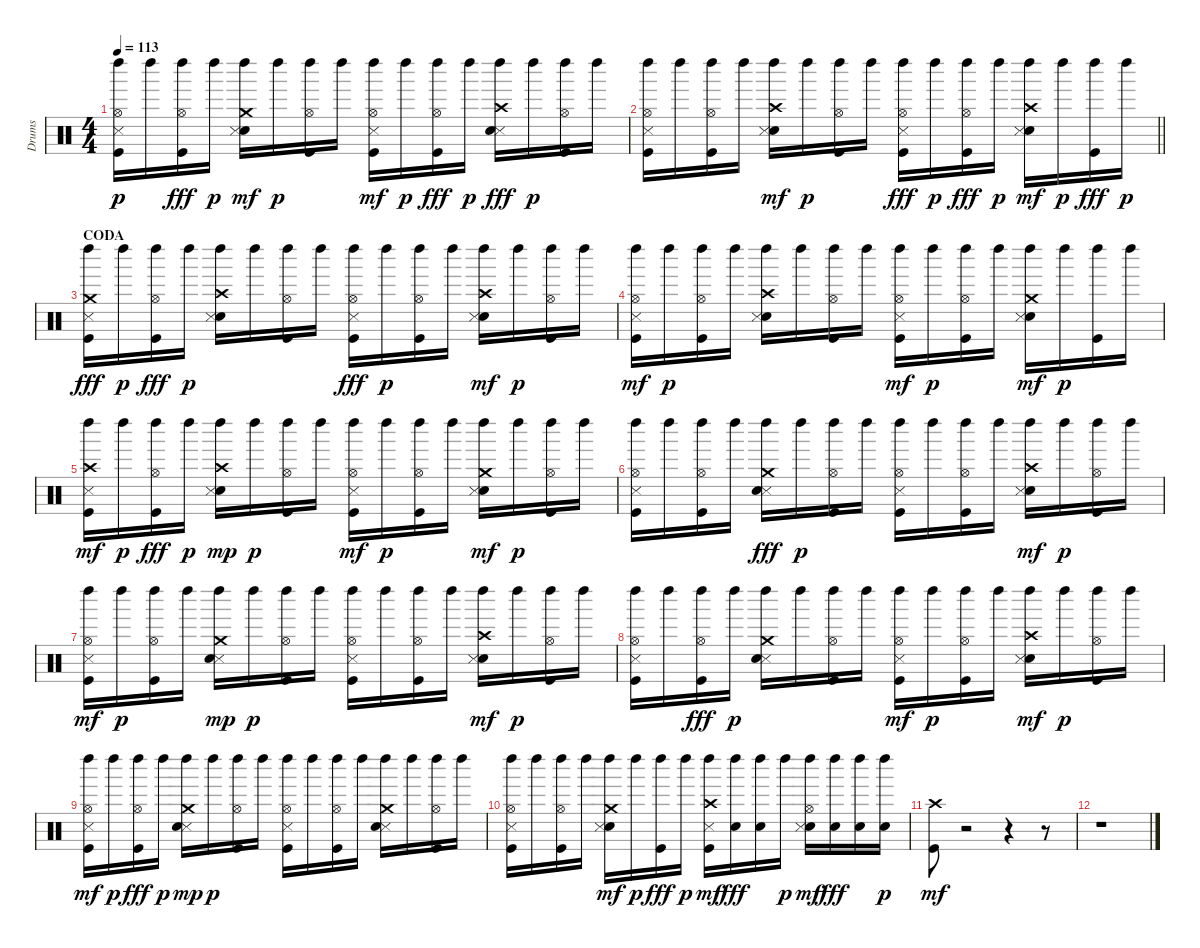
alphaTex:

\track ("Drums" "Drums") {instrument percussion}
\staff {score}
\articulation defaults
\ts (4 4)
\tempo 113
\clef neutral
\ks c
("Snare (side stick) 3" "Left Maraca (hit)" "Kick (hit)" "Hi-Hat (open)").16{dy p} "Left Maraca (hit)".16 ("Left Maraca (hit)" "Hi-Hat (open)" "Kick (hit)").16{dy fff} "Left Maraca (hit)".16{dy p} ("Left Maraca (hit)" "Electric Snare (hit)" "Crash medium (hit)" "Snare (side stick) 3").16{dy mf} "Left Maraca (hit)".16{dy p} ("Left Maraca (hit)" "Kick (hit)" "Hi-Hat (open)").16 "Left Maraca (hit)".16 ("Hi-Hat (open)" "Kick (hit)" "Left Maraca (hit)" "Snare (side stick) 3").16{dy mf} "Left Maraca (hit)".16{dy p} ("Left Maraca (hit)" "Hi-Hat (open)" "Kick (hit)").16{dy fff} "Left Maraca (hit)".16{dy p} ("Snare (side stick) 3" "Left Maraca (hit)" "Crash high (hit)" "Electric Snare (hit)").16{dy fff} "Left Maraca (hit)".16{dy p} ("Hi-Hat (open)" "Kick (hit)" "Left Maraca (hit)").16 "Left Maraca (hit)".16 |
\barLineRight lightlight
("Snare (side stick) 3" "Kick (hit)" "Hi-Hat (open)" "Left Maraca (hit)").16 "Left Maraca (hit)".16 ("Kick (hit)" "Hi-Hat (open)" "Left Maraca (hit)").16 "Left Maraca (hit)".16 ("Left Maraca (hit)" "Crash high (hit)" "Electric Snare (hit)" "Snare (side stick) 3").16{dy mf} "Left Maraca (hit)".16{dy p} ("Hi-Hat (open)" "Kick (hit)" "Left Maraca (hit)").16 "Left Maraca (hit)".16 ("Left Maraca (hit)" "Snare (side stick) 3" "Hi-Hat (open)" "Kick (hit)").16{dy fff} "Left Maraca (hit)".16{dy p} ("Left Maraca (hit)" "Hi-Hat (open)" "Kick (hit)").16{dy fff} "Left Maraca (hit)".16{dy p} ("Left Maraca (hit)" "Electric Snare (hit)" "Crash high (hit)" "Snare (side stick) 3").16{dy mf} "Left Maraca (hit)".16{dy p} ("Left Maraca (hit)" "Kick (hit)").16{dy fff} "Left Maraca (hit)".16{dy p} |
\section ("" "CODA")
("Left Maraca (hit)" "Crash medium (hit)" "Snare (side stick) 3" "Kick (hit)").16{dy fff} "Left Maraca (hit)".16{dy p} ("Left Maraca (hit)" "Hi-Hat (open)" "Kick (hit)").16{dy fff} "Left Maraca (hit)".16{dy p} ("Electric Snare (hit)" "Snare (side stick) 3" "Crash high (hit)" "Left Maraca (hit)").16 "Left Maraca (hit)".16 ("Hi-Hat (open)" "Kick (hit)" "Left Maraca (hit)").16 "Left Maraca (hit)".16 ("Left Maraca (hit)" "Snare (side stick) 3" "Hi-Hat (open)" "Kick (hit)").16{dy fff} "Left Maraca (hit)".16{dy p} ("Left Maraca (hit)" "Kick (hit)" "Hi-Hat (open)").16 "Left Maraca (hit)".16 ("Left Maraca (hit)" "Crash high (hit)" "Electric Snare (hit)" "Snare (side stick) 3").16{dy mf} "Left Maraca (hit)".16{dy p} ("Kick (hit)" "Hi-Hat (open)" "Left Maraca (hit)").16 "Left Maraca (hit)".16 |
("Left Maraca (hit)" "Kick (hit)" "Hi-Hat (open)" "Snare (side stick) 3").16{dy mf} "Left Maraca (hit)".16{dy p} ("Kick (hit)" "Hi-Hat (open)" "Left Maraca (hit)").16 "Left Maraca (hit)".16 ("Electric Snare (hit)" "Crash high (hit)" "Snare (side stick) 3" "Left Maraca (hit)").16 "Left Maraca (hit)".16 ("Kick (hit)" "Hi-Hat (open)" "Left Maraca (hit)").16 "Left Maraca (hit)".16 ("Kick (hit)" "Hi-Hat (open)" "Left Maraca (hit)" "Snare (side stick) 3").16{dy mf} "Left Maraca (hit)".16{dy p} ("Kick (hit)" "Hi-Hat (open)" "Left Maraca (hit)").16 "Left Maraca (hit)".16 ("Electric Snare (hit)" "Crash medium (hit)" "Left Maraca (hit)" "Snare (side stick) 3").16{dy mf} "Left Maraca (hit)".16{dy p} ("Kick (hit)" "Left Maraca (hit)").16 "Left Maraca (hit)".16 |
("Left Maraca (hit)" "Kick (hit)" "Crash high (hit)" "Snare (side stick) 3").16{dy mf} "Left Maraca (hit)".16{dy p} ("Left Maraca (hit)" "Hi-Hat (open)" "Kick (hit)").16{dy fff} "Left Maraca (hit)".16{dy p} ("Left Maraca (hit)" "Electric Snare (hit)" "Snare (side stick) 3" "Crash high (hit)").16{dy mp} "Left Maraca (hit)".16{dy p} ("Left Maraca (hit)" "Kick (hit)" "Hi-Hat (open)").16 "Left Maraca (hit)".16 ("Left Maraca (hit)" "Kick (hit)" "Hi-Hat (open)" "Snare (side stick) 3").16{dy mf} "Left Maraca (hit)".16{dy p} ("Left Maraca (hit)" "Kick (hit)" "Hi-Hat (open)").16 "Left Maraca (hit)".16 ("Left Maraca (hit)" "Electric Snare (hit)" "Crash medium (hit)" "Snare (side stick) 3").16{dy mf} "Left Maraca (hit)".16{dy p} ("Kick (hit)" "Hi-Hat (open)" "Left Maraca (hit)").16 "Left Maraca (hit)".16 |
("Snare (side stick) 3" "Left Maraca (hit)" "Kick (hit)" "Hi-Hat (open)").16 "Left Maraca (hit)".16 ("Left Maraca (hit)" "Kick (hit)" "Hi-Hat (open)").16 "Left Maraca (hit)".16 ("Snare (side stick) 3" "Left Maraca (hit)" "Crash medium (hit)" "Electric Snare (hit)").16{dy fff} "Left Maraca (hit)".16{dy p} ("Kick (hit)" "Hi-Hat (open)" "Left Maraca (hit)").16 "Left Maraca (hit)".16 ("Left Maraca (hit)" "Snare (side stick) 3" "Kick (hit)" "Hi-Hat (open)").16 "Left Maraca (hit)".16 ("Left Maraca (hit)" "Kick (hit)" "Hi-Hat (open)").16 "Left Maraca (hit)".16 ("Left Maraca (hit)" "Electric Snare (hit)" "Crash high (hit)" "Snare (side stick) 3").16{dy mf} "Left Maraca (hit)".16{dy p} ("Left Maraca (hit)" "Kick (hit)" "Hi-Hat (open)").16 "Left Maraca (hit)".16 |
("Left Maraca (hit)" "Kick (hit)" "Hi-Hat (open)" "Snare (side stick) 3").16{dy mf} "Left Maraca (hit)".16{dy p} ("Left Maraca (hit)" "Kick (hit)" "Hi-Hat (open)").16 "Left Maraca (hit)".16 ("Snare (side stick) 3" "Left Maraca (hit)" "Electric Snare (hit)" "Crash medium (hit)").16{dy mp} "Left Maraca (hit)".16{dy p} ("Hi-Hat (open)" "Kick (hit)" "Left Maraca (hit)").16 "Left Maraca (hit)".16 ("Snare (side stick) 3" "Kick (hit)" "Left Maraca (hit)" "Hi-Hat (open)").16 "Left Maraca (hit)".16 ("Left Maraca (hit)" "Kick (hit)" "Hi-Hat (open)").16 "Left Maraca (hit)".16 ("Left Maraca (hit)" "Crash high (hit)" "Electric Snare (hit)" "Snare (side stick) 3").16{dy mf} "Left Maraca (hit)".16{dy p} ("Left Maraca (hit)" "Kick (hit)" "Hi-Hat (open)").16 "Left Maraca (hit)".16 |
("Left Maraca (hit)" "Snare (side stick) 3" "Kick (hit)" "Hi-Hat (open)").16 "Left Maraca (hit)".16 ("Left Maraca (hit)" "Hi-Hat (open)" "Kick (hit)").16{dy fff} "Left Maraca (hit)".16{dy p} ("Snare (side stick) 3" "Crash medium (hit)" "Electric Snare (hit)" "Left Maraca (hit)").16 "Left Maraca (hit)".16 ("Hi-Hat (open)" "Kick (hit)" "Left Maraca (hit)").16 "Left Maraca (hit)".16 ("Left Maraca (hit)" "Hi-Hat (open)" "Kick (hit)" "Snare (side stick) 3").16{dy mf} "Left Maraca (hit)".16{dy p} ("Left Maraca (hit)" "Kick (hit)" "Hi-Hat (open)").16 "Left Maraca (hit)".16 ("Left Maraca (hit)" "Crash high (hit)" "Electric Snare (hit)" "Snare (side stick) 3").16{dy mf} "Left Maraca (hit)".16{dy p} ("Left Maraca (hit)" "Kick (hit)" "Hi-Hat (open)").16 "Left Maraca (hit)".16 |
("Left Maraca (hit)" "Kick (hit)" "Hi-Hat (open)" "Snare (side stick) 3").16{dy mf} "Left Maraca (hit)".16{dy p} ("Left Maraca (hit)" "Hi-Hat (open)" "Kick (hit)").16{dy fff} "Left Maraca (hit)".16{dy p} ("Snare (side stick) 3" "Left Maraca (hit)" "Electric Snare (hit)" "Crash medium (hit)").16{dy mp} "Left Maraca (hit)".16{dy p} ("Left Maraca (hit)" "Kick (hit)" "Hi-Hat (open)").16 "Left Maraca (hit)".16 ("Snare (side stick) 3" "Kick (hit)" "Hi-Hat (open)" "Left Maraca (hit)").16 "Left Maraca (hit)".16 ("Hi-Hat (open)" "Kick (hit)" "Left Maraca (hit)").16 "Left Maraca (hit)".16 ("Snare (side stick) 3" "Electric Snare (hit)" "Crash medium (hit)" "Left Maraca (hit)").16 "Left Maraca (hit)".16 ("Hi-Hat (open)" "Kick (hit)" "Left Maraca (hit)").16 "Left Maraca (hit)".16 |
("Kick (hit)" "Hi-Hat (open)" "Snare (side stick) 3" "Left Maraca (hit)").16 "Left Maraca (hit)".16 ("Hi-Hat (open)" "Kick (hit)" "Left Maraca (hit)").16 "Left Maraca (hit)".16 ("Left Maraca (hit)" "Electric Snare (hit)" "Crash medium (hit)" "Snare (side stick) 3").16{dy mf} "Left Maraca (hit)".16{dy p} ("Left Maraca (hit)" "Kick (hit)").16{dy fff} "Left Maraca (hit)".16{dy p} ("Left Maraca (hit)" "Kick (hit)" "Crash high (hit)" "Snare (side stick) 3").16{dy mf} ("Left Maraca (hit)" "Electric Snare (hit)").16{dy fff} ("Left Maraca (hit)" "Electric Snare (hit)").16 "Left Maraca (hit)".16{dy p} ("Left Maraca (hit)" "Hi-Hat (open)" "Electric Snare (hit)" "Snare (side stick) 3").16{dy mf} ("Left Maraca (hit)" "Electric Snare (hit)").16{dy fff} ("Left Maraca (hit)" "Electric Snare (hit)").16 ("Electric Snare (hit)" "Left Maraca (hit)").16{dy p} |
("Kick (hit)" "Crash high (hit)").8{dy mf} r.2 r.4 r.8 |
r.1
